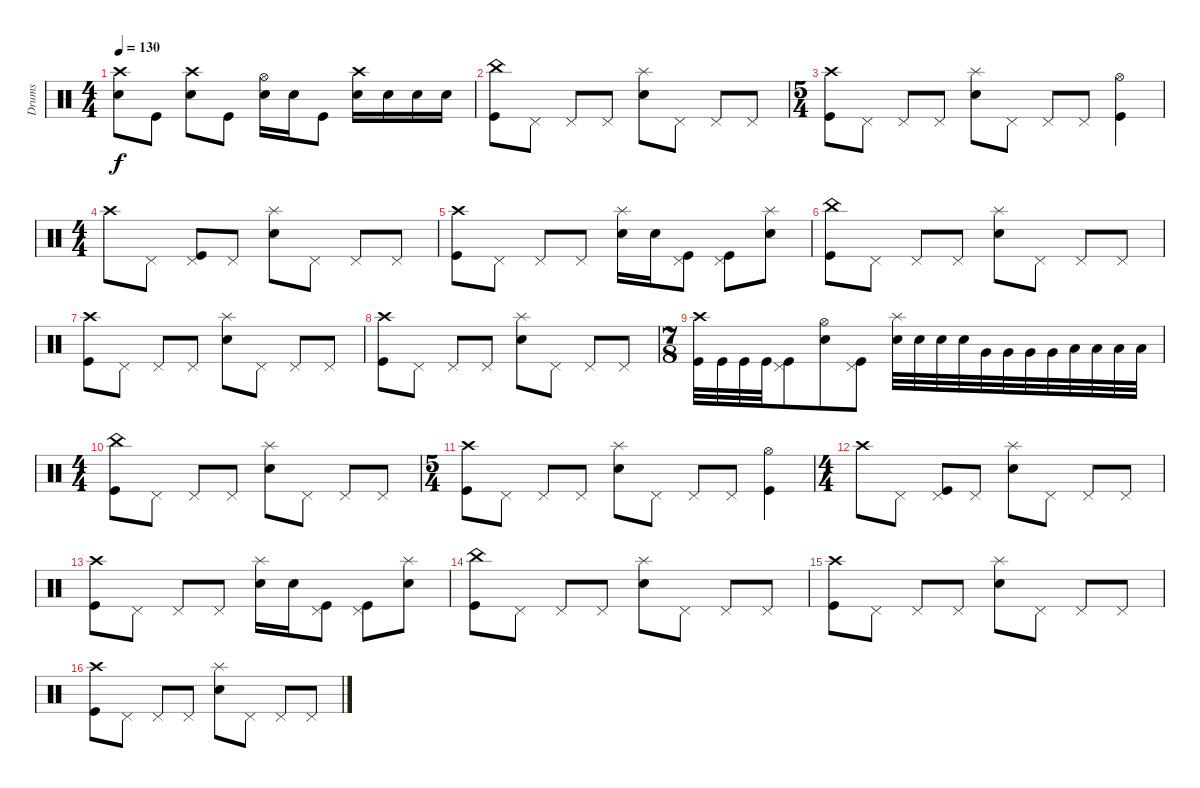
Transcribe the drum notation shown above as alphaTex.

\track ("Drums" "Drums") {instrument percussion}
\staff {score}
\articulation defaults
\ts (4 4)
\tempo 130
\clef neutral
\ks c
("Crash high (hit)" "Snare (hit) 2").8{dy f} "Kick (hit)".8 ("Crash high (hit)" "Snare (hit) 2").8 "Kick (hit)".8 ("Hi-Hat (open)" "Snare (hit) 2").16 "Snare (hit) 2".16 "Kick (hit)".8 ("Crash high (hit)" "Snare (hit) 2").16 "Snare (hit) 2".16 "Snare (hit) 2".16 "Snare (hit) 2".16 |
("China (hit)" "Kick (hit)").8 "Pedal Hi-Hat (hit)".8 "Pedal Hi-Hat (hit)".8 "Pedal Hi-Hat (hit)".8 ("Splash (hit)" "Snare (hit) 2").8 "Pedal Hi-Hat (hit)".8 "Pedal Hi-Hat (hit)".8 "Pedal Hi-Hat (hit)".8 |
\ts (5 4)
("Crash high (hit)" "Kick (hit)").8 "Pedal Hi-Hat (hit)".8 "Pedal Hi-Hat (hit)".8 "Pedal Hi-Hat (hit)".8 ("Splash (hit)" "Snare (hit) 2").8 "Pedal Hi-Hat (hit)".8 "Pedal Hi-Hat (hit)".8 "Pedal Hi-Hat (hit)".8 ("Hi-Hat (open)" "Kick (hit)").4 |
\ts (4 4)
"Crash high (hit)".8 "Pedal Hi-Hat (hit)".8 ("Pedal Hi-Hat (hit)" "Kick (hit)").8 "Pedal Hi-Hat (hit)".8 ("Splash (hit)" "Snare (hit) 2").8 "Pedal Hi-Hat (hit)".8 "Pedal Hi-Hat (hit)".8 "Pedal Hi-Hat (hit)".8 |
("Crash high (hit)" "Kick (hit)").8 "Pedal Hi-Hat (hit)".8 "Pedal Hi-Hat (hit)".8 "Pedal Hi-Hat (hit)".8 ("Splash (hit)" "Snare (hit) 2").16 "Snare (hit) 2".16 ("Pedal Hi-Hat (hit)" "Kick (hit)").8 ("Pedal Hi-Hat (hit)" "Kick (hit)").8 ("Splash (hit)" "Snare (hit) 2").8 |
("China (hit)" "Kick (hit)").8 "Pedal Hi-Hat (hit)".8 "Pedal Hi-Hat (hit)".8 "Pedal Hi-Hat (hit)".8 ("Splash (hit)" "Snare (hit) 2").8 "Pedal Hi-Hat (hit)".8 "Pedal Hi-Hat (hit)".8 "Pedal Hi-Hat (hit)".8 |
("Crash high (hit)" "Kick (hit)").8 "Pedal Hi-Hat (hit)".8 "Pedal Hi-Hat (hit)".8 "Pedal Hi-Hat (hit)".8 ("Splash (hit)" "Snare (hit) 2").8 "Pedal Hi-Hat (hit)".8 "Pedal Hi-Hat (hit)".8 "Pedal Hi-Hat (hit)".8 |
("Crash high (hit)" "Kick (hit)").8 "Pedal Hi-Hat (hit)".8 "Pedal Hi-Hat (hit)".8 "Pedal Hi-Hat (hit)".8 ("Splash (hit)" "Snare (hit) 2").8 "Pedal Hi-Hat (hit)".8 "Pedal Hi-Hat (hit)".8 "Pedal Hi-Hat (hit)".8 |
\ts (7 8)
("Crash high (hit)" "Kick (hit)").32 "Kick (hit)".32 "Kick (hit)".32 "Kick (hit)".32 ("Pedal Hi-Hat (hit)" "Kick (hit)").8 ("Hi-Hat (open)" "Snare (hit) 2").8 ("Pedal Hi-Hat (hit)" "Kick (hit)").8 ("Splash (hit)" "Snare (hit) 2").32 "Snare (hit) 2".32 "Snare (hit) 2".32 "Snare (hit) 2".32 "Very Low Tom (hit)".32 "Very Low Tom (hit)".32 "Very Low Tom (hit)".32 "Very Low Tom (hit)".32 "Low Floor Tom (hit)".32 "Low Floor Tom (hit)".32 "Low Floor Tom (hit)".32 "Low Floor Tom (hit)".32 |
\ts (4 4)
("China (hit)" "Kick (hit)").8 "Pedal Hi-Hat (hit)".8 "Pedal Hi-Hat (hit)".8 "Pedal Hi-Hat (hit)".8 ("Splash (hit)" "Snare (hit) 2").8 "Pedal Hi-Hat (hit)".8 "Pedal Hi-Hat (hit)".8 "Pedal Hi-Hat (hit)".8 |
\ts (5 4)
("Crash high (hit)" "Kick (hit)").8 "Pedal Hi-Hat (hit)".8 "Pedal Hi-Hat (hit)".8 "Pedal Hi-Hat (hit)".8 ("Splash (hit)" "Snare (hit) 2").8 "Pedal Hi-Hat (hit)".8 "Pedal Hi-Hat (hit)".8 "Pedal Hi-Hat (hit)".8 ("Hi-Hat (open)" "Kick (hit)").4 |
\ts (4 4)
"Crash high (hit)".8 "Pedal Hi-Hat (hit)".8 ("Pedal Hi-Hat (hit)" "Kick (hit)").8 "Pedal Hi-Hat (hit)".8 ("Splash (hit)" "Snare (hit) 2").8 "Pedal Hi-Hat (hit)".8 "Pedal Hi-Hat (hit)".8 "Pedal Hi-Hat (hit)".8 |
("Crash high (hit)" "Kick (hit)").8 "Pedal Hi-Hat (hit)".8 "Pedal Hi-Hat (hit)".8 "Pedal Hi-Hat (hit)".8 ("Splash (hit)" "Snare (hit) 2").16 "Snare (hit) 2".16 ("Pedal Hi-Hat (hit)" "Kick (hit)").8 ("Pedal Hi-Hat (hit)" "Kick (hit)").8 ("Splash (hit)" "Snare (hit) 2").8 |
("China (hit)" "Kick (hit)").8 "Pedal Hi-Hat (hit)".8 "Pedal Hi-Hat (hit)".8 "Pedal Hi-Hat (hit)".8 ("Splash (hit)" "Snare (hit) 2").8 "Pedal Hi-Hat (hit)".8 "Pedal Hi-Hat (hit)".8 "Pedal Hi-Hat (hit)".8 |
("Crash high (hit)" "Kick (hit)").8 "Pedal Hi-Hat (hit)".8 "Pedal Hi-Hat (hit)".8 "Pedal Hi-Hat (hit)".8 ("Splash (hit)" "Snare (hit) 2").8 "Pedal Hi-Hat (hit)".8 "Pedal Hi-Hat (hit)".8 "Pedal Hi-Hat (hit)".8 |
("Crash high (hit)" "Kick (hit)").8 "Pedal Hi-Hat (hit)".8 "Pedal Hi-Hat (hit)".8 "Pedal Hi-Hat (hit)".8 ("Splash (hit)" "Snare (hit) 2").8 "Pedal Hi-Hat (hit)".8 "Pedal Hi-Hat (hit)".8 "Pedal Hi-Hat (hit)".8
